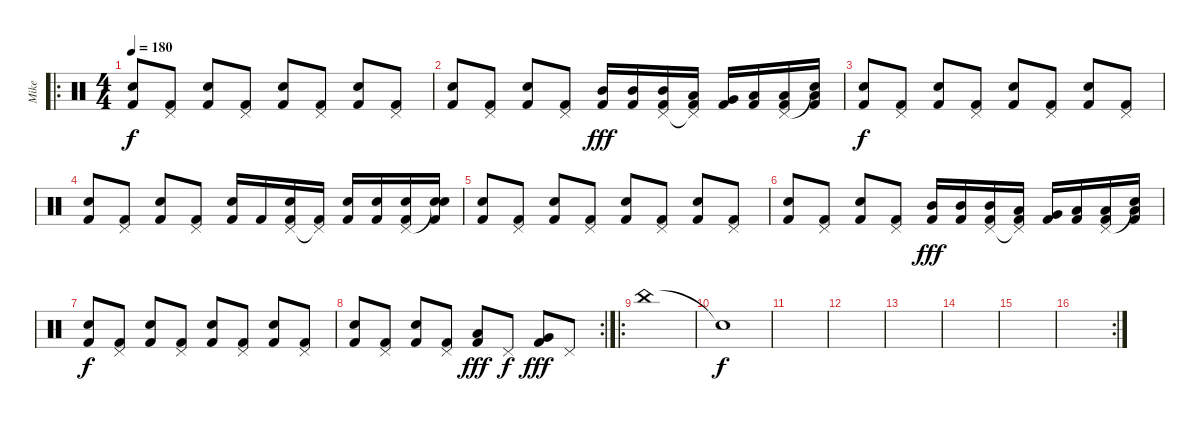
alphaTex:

\track ("Mike" "Mike") {instrument percussion}
\staff {score}
\articulation defaults
\ro
\ts (4 4)
\tempo 180
\clef neutral
\ks c
("Electric Snare (hit)" "Kick (hit) 2").8{dy f} ("Pedal Hi-Hat (hit)" "Kick (hit) 2").8 ("Electric Snare (hit)" "Kick (hit) 2").8 ("Pedal Hi-Hat (hit)" "Kick (hit) 2").8 ("Electric Snare (hit)" "Kick (hit) 2").8 ("Pedal Hi-Hat (hit)" "Kick (hit) 2").8 ("Electric Snare (hit)" "Kick (hit) 2").8 ("Pedal Hi-Hat (hit)" "Kick (hit) 2").8 |
("Electric Snare (hit)" "Kick (hit) 2").8 ("Pedal Hi-Hat (hit)" "Kick (hit) 2").8 ("Electric Snare (hit)" "Kick (hit) 2").8 ("Pedal Hi-Hat (hit)" "Kick (hit) 2").8 ("Mid Tom (hit)" "Kick (hit) 2").16{dy fff} ("Mid Tom (hit)" "Kick (hit) 2").16 ("Mid Tom (hit)" "Pedal Hi-Hat (hit)" "Kick (hit) 2").16 ("Low Tom (hit)" "Pedal Hi-Hat (hit)"{t} "Kick (hit) 2").16 ("Very Low Tom (hit)" "Kick (hit) 2").16 ("Low Tom (hit)" "Kick (hit) 2").16 ("Low Tom (hit)" "Pedal Hi-Hat (hit)" "Kick (hit) 2").16 ("Low Floor Tom (hit)" "Snare (hit)"{t} "Kick (hit) 2").16 |
("Electric Snare (hit)" "Kick (hit) 2").8{dy f} ("Pedal Hi-Hat (hit)" "Kick (hit) 2").8 ("Electric Snare (hit)" "Kick (hit) 2").8 ("Pedal Hi-Hat (hit)" "Kick (hit) 2").8 ("Electric Snare (hit)" "Kick (hit) 2").8 ("Pedal Hi-Hat (hit)" "Kick (hit) 2").8 ("Electric Snare (hit)" "Kick (hit) 2").8 ("Pedal Hi-Hat (hit)" "Kick (hit) 2").8 |
("Electric Snare (hit)" "Kick (hit) 2").8 ("Pedal Hi-Hat (hit)" "Kick (hit) 2").8 ("Electric Snare (hit)" "Kick (hit) 2").8 ("Pedal Hi-Hat (hit)" "Kick (hit) 2").8 ("Electric Snare (hit)" "Kick (hit) 2").16 "Kick (hit) 2".16 ("Pedal Hi-Hat (hit)" "Electric Snare (hit)" "Kick (hit) 2").16 ("Pedal Hi-Hat (hit)"{t} "Kick (hit) 2").16 ("Electric Snare (hit)" "Kick (hit) 2").16 ("Electric Snare (hit)" "Kick (hit) 2").16 ("Pedal Hi-Hat (hit)" "Electric Snare (hit)" "Kick (hit) 2").16 ("Snare (hit)"{t} "Electric Snare (hit)" "Kick (hit) 2").16 |
("Electric Snare (hit)" "Kick (hit) 2").8 ("Pedal Hi-Hat (hit)" "Kick (hit) 2").8 ("Electric Snare (hit)" "Kick (hit) 2").8 ("Pedal Hi-Hat (hit)" "Kick (hit) 2").8 ("Electric Snare (hit)" "Kick (hit) 2").8 ("Pedal Hi-Hat (hit)" "Kick (hit) 2").8 ("Electric Snare (hit)" "Kick (hit) 2").8 ("Pedal Hi-Hat (hit)" "Kick (hit) 2").8 |
("Electric Snare (hit)" "Kick (hit) 2").8 ("Pedal Hi-Hat (hit)" "Kick (hit) 2").8 ("Electric Snare (hit)" "Kick (hit) 2").8 ("Pedal Hi-Hat (hit)" "Kick (hit) 2").8 ("Mid Tom (hit)" "Kick (hit) 2").16{dy fff} ("Mid Tom (hit)" "Kick (hit) 2").16 ("Mid Tom (hit)" "Pedal Hi-Hat (hit)" "Kick (hit) 2").16 ("Low Tom (hit)" "Pedal Hi-Hat (hit)"{t} "Kick (hit) 2").16 ("Very Low Tom (hit)" "Kick (hit) 2").16 ("Low Tom (hit)" "Kick (hit) 2").16 ("Low Tom (hit)" "Pedal Hi-Hat (hit)" "Kick (hit) 2").16 ("Low Floor Tom (hit)" "Snare (hit)"{t} "Kick (hit) 2").16 |
("Electric Snare (hit)" "Kick (hit) 2").8{dy f} ("Pedal Hi-Hat (hit)" "Kick (hit) 2").8 ("Electric Snare (hit)" "Kick (hit) 2").8 ("Pedal Hi-Hat (hit)" "Kick (hit) 2").8 ("Electric Snare (hit)" "Kick (hit) 2").8 ("Pedal Hi-Hat (hit)" "Kick (hit) 2").8 ("Electric Snare (hit)" "Kick (hit) 2").8 ("Pedal Hi-Hat (hit)" "Kick (hit) 2").8 |
\rc 2
("Electric Snare (hit)" "Kick (hit) 2").8 ("Pedal Hi-Hat (hit)" "Kick (hit) 2").8 ("Electric Snare (hit)" "Kick (hit) 2").8 ("Pedal Hi-Hat (hit)" "Kick (hit) 2").8 ("Low Tom (hit)" "Kick (hit) 2").8{dy fff} "Pedal Hi-Hat (hit)".8{dy f} ("Very Low Tom (hit)" "Kick (hit) 2").8{dy fff} "Pedal Hi-Hat (hit)".8 |
\ro "China (hit)".1
|
"Snare (hit)"{t}.1{dy f} |
|
|
|
|
|
\rc 2
